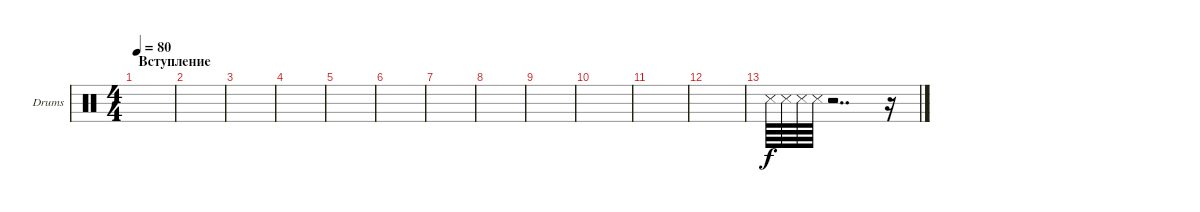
\defaultSystemsLayout 4
\bracketExtendMode groupsimilarinstruments
\firstSystemTrackNameOrientation horizontal
\otherSystemsTrackNameOrientation horizontal
\track ("Drumkit" "Drums") {instrument percussion}
\staff {score}
\articulation defaults
\ts (4 4)
\section ("" "Вступление")
\tempo 80
\clef neutral
\scale
0.472222
\ks c
|
\scale
0.263889 |
\scale
0.263889 |
\scale
0.333333 |
\scale
0.333333 |
\scale
0.333333 |
\scale
0.333333 |
\scale
0.333333 |
\scale
0.333333 |
\scale
0.333333 |
\scale
0.333333 |
\scale
0.333333 |
\scale
0.333333 "Snare (side stick) 3".64 "Snare (side stick) 3".64 "Snare (side stick) 3".64 "Snare (side stick) 3".64 r.2{dd} r.16 |
\scale
0.333333 |
\scale
0.333333 |
\scale
0.333333
